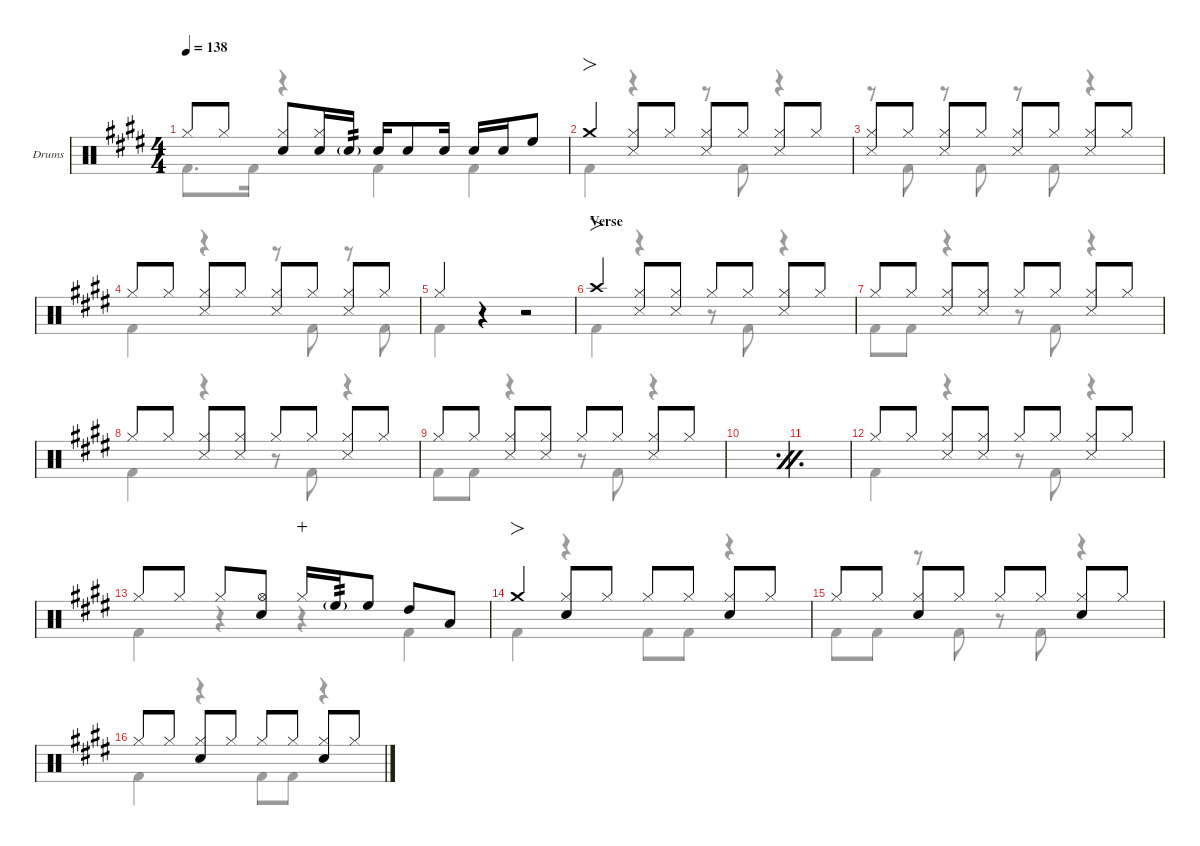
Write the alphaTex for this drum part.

\defaultSystemsLayout 4
\hideDynamics
\bracketExtendMode nobrackets
\firstSystemTrackNameOrientation horizontal
\track ("Drums" "Drums") {defaultSystemsLayout 4 instrument percussion}
\staff {score}
\articulation defaults
\voice
\ts (4 4)
\tempo 138
\clef neutral
\scale
0.244461
\ks c#minor "Hi-Hat (closed)"{acc forcenatural}.8{dy f beam Up} "Hi-Hat (closed)"{acc forcenatural}.8{dy mp beam Up beam split}
("Hi-Hat (closed)"{acc forcenatural} "Snare (hit) 2"{acc forcenatural}).8{dy f beam Up} ("Hi-Hat (closed)"{acc forcenatural} "Snare (hit) 2"{acc forcenatural}).16{beam Up} "Snare (hit) 2"{g acc forcenatural}.16{tp 2 dy mf beam Up} "Snare (hit) 2"{acc forcenatural}.16{dy f beam Up} "Snare (hit) 2"{acc forcenatural}.8{dy mf beam Up} "Snare (hit) 2"{acc forcenatural}.16{beam Up beam split} "Snare (hit) 2"{acc forcenatural}.16{dy f beam Up} "Snare (hit) 2"{acc forcenatural}.16{dy mf beam Up} "High Floor Tom (hit)"{acc forcenatural}.8{dy f beam Up} |
\scale
0.266618 "Crash medium (hit)"{acc forcenatural}.4{fo beam Up} ("Hi-Hat (closed)"{acc forcenatural} "Snare (side stick) 3"{acc forcenatural}).8{beam Up} "Hi-Hat (closed)"{acc forcenatural}.8{dy mp beam Up} ("Hi-Hat (closed)"{acc forcenatural} "Snare (side stick) 3"{acc forcenatural}).8{dy f beam Up} "Hi-Hat (closed)"{acc forcenatural}.8{dy mp beam Up} ("Hi-Hat (closed)"{acc forcenatural} "Snare (side stick) 3"{acc forcenatural}).8{dy f beam Up} "Hi-Hat (closed)"{acc forcenatural}.8{dy mp beam Up} |
\scale
0.244461 ("Hi-Hat (closed)"{acc forcenatural} "Snare (side stick) 3"{acc forcenatural}).8{dy f beam Up} "Hi-Hat (closed)"{acc forcenatural}.8{dy mp beam Up} ("Hi-Hat (closed)"{acc forcenatural} "Snare (side stick) 3"{acc forcenatural}).8{dy f beam Up} "Hi-Hat (closed)"{acc forcenatural}.8{dy mp beam Up} ("Hi-Hat (closed)"{acc forcenatural} "Snare (side stick) 3"{acc forcenatural}).8{dy f beam Up} "Hi-Hat (closed)"{acc forcenatural}.8{dy mp beam Up} ("Hi-Hat (closed)"{acc forcenatural} "Snare (side stick) 3"{acc forcenatural}).8{dy f beam Up} "Hi-Hat (closed)"{acc forcenatural}.8{dy mp beam Up} |
\scale
0.244461 "Hi-Hat (closed)"{acc forcenatural}.8{dy f beam Up} "Hi-Hat (closed)"{acc forcenatural}.8{dy mp beam Up} ("Hi-Hat (closed)"{acc forcenatural} "Snare (side stick) 3"{acc forcenatural}).8{dy f beam Up} "Hi-Hat (closed)"{acc forcenatural}.8{dy mp beam Up} ("Hi-Hat (closed)"{acc forcenatural} "Snare (side stick) 3"{acc forcenatural}).8{dy f beam Up} "Hi-Hat (closed)"{acc forcenatural}.8{dy mp beam Up} ("Hi-Hat (closed)"{acc forcenatural} "Snare (side stick) 3"{acc forcenatural}).8{dy f beam Up} "Hi-Hat (closed)"{acc forcenatural}.8{dy mp beam Up} |
\scale
0.244461 "Hi-Hat (closed)"{acc forcenatural}.4{dy f beam Up} r.4{beam Up} r.2{beam Up} |
\section ("" "Verse")
\scale
0.266618 "Crash high (hit)"{acc forcenatural}.4{fo beam Up} ("Hi-Hat (closed)"{acc forcenatural} "Snare (side stick) 3"{acc forcenatural}).8{beam Up} ("Hi-Hat (closed)"{acc forcenatural} "Snare (side stick) 3"{acc forcenatural}).8{beam Up} "Hi-Hat (closed)"{acc forcenatural}.8{beam Up} "Hi-Hat (closed)"{acc forcenatural}.8{dy mp beam Up} ("Hi-Hat (closed)"{acc forcenatural} "Snare (side stick) 3"{acc forcenatural}).8{dy f beam Up} "Hi-Hat (closed)"{acc forcenatural}.8{dy mp beam Up} |
\scale
0.244461 "Hi-Hat (closed)"{acc forcenatural}.8{dy f beam Up} "Hi-Hat (closed)"{acc forcenatural}.8{dy mp beam Up} ("Hi-Hat (closed)"{acc forcenatural} "Snare (side stick) 3"{acc forcenatural}).8{dy f beam Up} ("Hi-Hat (closed)"{acc forcenatural} "Snare (side stick) 3"{acc forcenatural}).8{beam Up} "Hi-Hat (closed)"{acc forcenatural}.8{beam Up} "Hi-Hat (closed)"{acc forcenatural}.8{dy mp beam Up} ("Hi-Hat (closed)"{acc forcenatural} "Snare (side stick) 3"{acc forcenatural}).8{dy f beam Up} "Hi-Hat (closed)"{acc forcenatural}.8{dy mp beam Up} |
\scale
0.244461 "Hi-Hat (closed)"{acc forcenatural}.8{dy f beam Up} "Hi-Hat (closed)"{acc forcenatural}.8{dy mp beam Up} ("Hi-Hat (closed)"{acc forcenatural} "Snare (side stick) 3"{acc forcenatural}).8{dy f beam Up} ("Hi-Hat (closed)"{acc forcenatural} "Snare (side stick) 3"{acc forcenatural}).8{beam Up} "Hi-Hat (closed)"{acc forcenatural}.8{beam Up} "Hi-Hat (closed)"{acc forcenatural}.8{dy mp beam Up} ("Hi-Hat (closed)"{acc forcenatural} "Snare (side stick) 3"{acc forcenatural}).8{dy f beam Up} "Hi-Hat (closed)"{acc forcenatural}.8{dy mp beam Up} |
\scale
0.244461 "Hi-Hat (closed)"{acc forcenatural}.8{dy f beam Up} "Hi-Hat (closed)"{acc forcenatural}.8{dy mp beam Up} ("Hi-Hat (closed)"{acc forcenatural} "Snare (side stick) 3"{acc forcenatural}).8{dy f beam Up} ("Hi-Hat (closed)"{acc forcenatural} "Snare (side stick) 3"{acc forcenatural}).8{beam Up} "Hi-Hat (closed)"{acc forcenatural}.8{beam Up} "Hi-Hat (closed)"{acc forcenatural}.8{dy mp beam Up} ("Hi-Hat (closed)"{acc forcenatural} "Snare (side stick) 3"{acc forcenatural}).8{dy f beam Up} "Hi-Hat (closed)"{acc forcenatural}.8{dy mp beam Up} |
\simile firstofdouble
\scale
0.266618 |
\simile secondofdouble
\scale
0.244461 |
\simile none
\scale
0.244461 "Hi-Hat (closed)"{acc forcenatural}.8{dy f beam Up} "Hi-Hat (closed)"{acc forcenatural}.8{dy mp beam Up} ("Hi-Hat (closed)"{acc forcenatural} "Snare (side stick) 3"{acc forcenatural}).8{dy f beam Up} ("Hi-Hat (closed)"{acc forcenatural} "Snare (side stick) 3"{acc forcenatural}).8{beam Up} "Hi-Hat (closed)"{acc forcenatural}.8{beam Up} "Hi-Hat (closed)"{acc forcenatural}.8{dy mp beam Up} ("Hi-Hat (closed)"{acc forcenatural} "Snare (side stick) 3"{acc forcenatural}).8{dy f beam Up} "Hi-Hat (closed)"{acc forcenatural}.8{dy mp beam Up} |
\scale
0.244461 "Hi-Hat (closed)"{acc forcenatural}.8{beam Up} "Hi-Hat (closed)"{acc forcenatural}.8{beam Up} "Hi-Hat (closed)"{acc forcenatural}.8{beam Up} ("Snare (hit) 2"{acc forcenatural} "Hi-Hat (open)"{acc forcenatural}).8{dy f beam Up} "Hi-Hat (closed)"{acc forcenatural}.16{dy mp wahc beam Up} "High Floor Tom (hit)"{g acc forcenatural}.16{tp 2 beam Up} "High Floor Tom (hit)"{acc forcenatural}.8{dy mf beam Up beam split} "High Tom (hit)"{acc forcenatural}.8{dy f beam Up} "Low Tom (hit)"{acc forcenatural}.8{beam Up} |
\scale
0.266618 "Crash medium (hit)"{acc forcenatural}.4{fo beam Up} ("Hi-Hat (closed)"{acc forcenatural} "Snare (hit) 2"{acc forcenatural}).8{beam Up} "Hi-Hat (closed)"{acc forcenatural}.8{beam Up} "Hi-Hat (closed)"{acc forcenatural}.8{beam Up} "Hi-Hat (closed)"{acc forcenatural}.8{dy mp beam Up} ("Hi-Hat (closed)"{acc forcenatural} "Snare (hit) 2"{acc forcenatural}).8{dy f beam Up} "Hi-Hat (closed)"{acc forcenatural}.8{dy mp beam Up} |
\scale
0.244461 "Hi-Hat (closed)"{acc forcenatural}.8{dy f beam Up} "Hi-Hat (closed)"{acc forcenatural}.8{dy mp beam Up} ("Hi-Hat (closed)"{acc forcenatural} "Snare (hit) 2"{acc forcenatural}).8{dy f beam Up} "Hi-Hat (closed)"{acc forcenatural}.8{dy mp beam Up} "Hi-Hat (closed)"{acc forcenatural}.8{dy f beam Up} "Hi-Hat (closed)"{acc forcenatural}.8{dy mp beam Up} ("Hi-Hat (closed)"{acc forcenatural} "Snare (hit) 2"{acc forcenatural}).8{dy f beam Up} "Hi-Hat (closed)"{acc forcenatural}.8{dy mp beam Up} |
\scale
0.244461 "Hi-Hat (closed)"{acc forcenatural}.8{dy f beam Up} "Hi-Hat (closed)"{acc forcenatural}.8{dy mp beam Up} ("Hi-Hat (closed)"{acc forcenatural} "Snare (hit) 2"{acc forcenatural}).8{dy f beam Up} "Hi-Hat (closed)"{acc forcenatural}.8{dy mp beam Up} "Hi-Hat (closed)"{acc forcenatural}.8{dy f beam Up} "Hi-Hat (closed)"{acc forcenatural}.8{dy mp beam Up} ("Hi-Hat (closed)"{acc forcenatural} "Snare (hit) 2"{acc forcenatural}).8{dy f beam Up} "Hi-Hat (closed)"{acc forcenatural}.8{dy mp beam Up}
\voice
\clef neutral
\ottava regular
\simile none
\scale
0.244461
\ks c#minor "Kick (hit) 2"{acc forcenatural}.8{d dy f beam Down} "Kick (hit) 2"{acc forcenatural}.16{beam Down}
r.4{beam Down} "Kick (hit) 2"{acc forcenatural}.4{beam Down} "Kick (hit) 2"{acc forcenatural}.4{beam Down} |
\scale
0.266618 "Kick (hit) 2"{acc forcenatural}.4{beam Down} r.4{beam Down} r.8{beam Down} "Kick (hit) 2"{acc forcenatural}.8{beam Down} r.4{beam Down} |
\scale
0.244461 r.8{beam Down} "Kick (hit) 2"{acc forcenatural}.8{beam Down} r.8{beam Down} "Kick (hit) 2"{acc forcenatural}.8{beam Down} r.8{beam Down} "Kick (hit) 2"{acc forcenatural}.8{beam Down} r.4{beam Down} |
\scale
0.244461 "Kick (hit) 2"{acc forcenatural}.4{beam Down} r.4{beam Down} r.8{beam Down} "Kick (hit) 2"{acc forcenatural}.8{beam Down} r.8{beam Down} "Kick (hit) 2"{acc forcenatural}.8{beam Down} |
\scale
0.244461 "Kick (hit) 2"{acc forcenatural}.4{beam Down} r.4{beam Down} r.2{beam Down} |
\scale
0.266618 "Kick (hit) 2"{acc forcenatural}.4{beam Down} r.4{beam Down} r.8{beam Down} "Kick (hit) 2"{acc forcenatural}.8{beam Down} r.4{beam Down} |
\scale
0.244461 "Kick (hit) 2"{acc forcenatural}.8{beam Down} "Kick (hit) 2"{acc forcenatural}.8{beam Down} r.4{beam Down} r.8{beam Down} "Kick (hit) 2"{acc forcenatural}.8{beam Down} r.4{beam Down} |
\scale
0.244461 "Kick (hit) 2"{acc forcenatural}.4{beam Down} r.4{beam Down} r.8{beam Down} "Kick (hit) 2"{acc forcenatural}.8{beam Down} r.4{beam Down} |
\scale
0.244461 "Kick (hit) 2"{acc forcenatural}.8{beam Down} "Kick (hit) 2"{acc forcenatural}.8{beam Down} r.4{beam Down} r.8{beam Down} "Kick (hit) 2"{acc forcenatural}.8{beam Down} r.4{beam Down} |
\simile firstofdouble
\scale
0.266618 |
\simile secondofdouble
\scale
0.244461 |
\simile none
\scale
0.244461 "Kick (hit) 2"{acc forcenatural}.4{beam Down} r.4{beam Down} r.8{beam Down} "Kick (hit) 2"{acc forcenatural}.8{beam Down} r.4{beam Down} |
\scale
0.244461 "Kick (hit) 2"{acc forcenatural}.4{beam Down} r.4{beam Down} r.4{beam Down} "Kick (hit) 2"{acc forcenatural}.4{beam Down} |
\scale
0.266618 "Kick (hit) 2"{acc forcenatural}.4{beam Down} r.4{beam Down} "Kick (hit) 2"{acc forcenatural}.8{beam Down} "Kick (hit) 2"{acc forcenatural}.8{beam Down} r.4{beam Down} |
\scale
0.244461 "Kick (hit) 2"{acc forcenatural}.8{beam Down} "Kick (hit) 2"{acc forcenatural}.8{beam Down} r.8{beam Down} "Kick (hit) 2"{acc forcenatural}.8{beam Down} r.8{beam Down} "Kick (hit) 2"{acc forcenatural}.8{beam Down} r.4{beam Down} |
\scale
0.244461 "Kick (hit) 2"{acc forcenatural}.4{beam Down} r.4{beam Down} "Kick (hit) 2"{acc forcenatural}.8{beam Down} "Kick (hit) 2"{acc forcenatural}.8{beam Down} r.4{beam Down}
